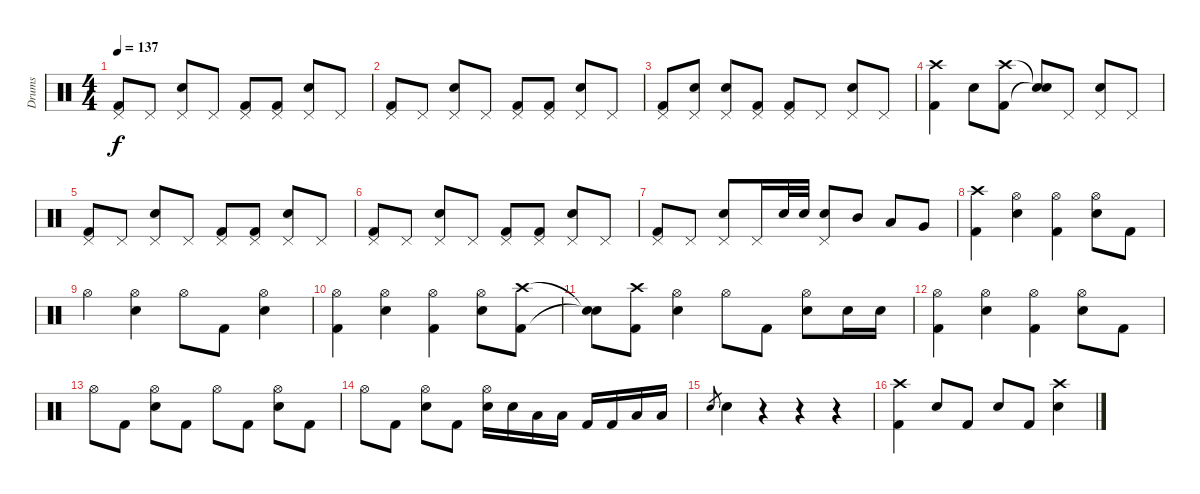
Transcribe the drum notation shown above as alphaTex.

\track ("Drums" "Drums") {instrument percussion}
\staff {score}
\articulation defaults
\ts (4 4)
\tempo 137
\clef neutral
\ks c
("Pedal Hi-Hat (hit)" "Kick (hit) 2").8{dy f} "Pedal Hi-Hat (hit)".8 ("Pedal Hi-Hat (hit)" "Electric Snare (hit)").8 "Pedal Hi-Hat (hit)".8 ("Pedal Hi-Hat (hit)" "Kick (hit) 2").8 ("Pedal Hi-Hat (hit)" "Kick (hit) 2").8 ("Pedal Hi-Hat (hit)" "Electric Snare (hit)").8 "Pedal Hi-Hat (hit)".8 |
("Pedal Hi-Hat (hit)" "Kick (hit) 2").8 "Pedal Hi-Hat (hit)".8 ("Pedal Hi-Hat (hit)" "Electric Snare (hit)").8 "Pedal Hi-Hat (hit)".8 ("Pedal Hi-Hat (hit)" "Kick (hit) 2").8 ("Pedal Hi-Hat (hit)" "Kick (hit) 2").8 ("Pedal Hi-Hat (hit)" "Electric Snare (hit)").8 "Pedal Hi-Hat (hit)".8 |
("Pedal Hi-Hat (hit)" "Kick (hit) 2").8 ("Pedal Hi-Hat (hit)" "Electric Snare (hit)").8 ("Pedal Hi-Hat (hit)" "Electric Snare (hit)").8 ("Pedal Hi-Hat (hit)" "Kick (hit) 2").8 ("Pedal Hi-Hat (hit)" "Kick (hit) 2").8 "Pedal Hi-Hat (hit)".8 ("Pedal Hi-Hat (hit)" "Electric Snare (hit)").8 "Pedal Hi-Hat (hit)".8 |
("Crash high (hit)" "Kick (hit) 2").4 "Electric Snare (hit)".8 ("Crash high (hit)" "Kick (hit) 2").8 ("Snare (hit)"{t} "Snare (hit)"{t}).8 "Pedal Hi-Hat (hit)".8 ("Pedal Hi-Hat (hit)" "Electric Snare (hit)").8 "Pedal Hi-Hat (hit)".8 |
("Pedal Hi-Hat (hit)" "Kick (hit) 2").8 "Pedal Hi-Hat (hit)".8 ("Pedal Hi-Hat (hit)" "Electric Snare (hit)").8 "Pedal Hi-Hat (hit)".8 ("Pedal Hi-Hat (hit)" "Kick (hit) 2").8 ("Pedal Hi-Hat (hit)" "Kick (hit) 2").8 ("Pedal Hi-Hat (hit)" "Electric Snare (hit)").8 "Pedal Hi-Hat (hit)".8 |
("Pedal Hi-Hat (hit)" "Kick (hit) 2").8 "Pedal Hi-Hat (hit)".8 ("Pedal Hi-Hat (hit)" "Electric Snare (hit)").8 "Pedal Hi-Hat (hit)".8 ("Pedal Hi-Hat (hit)" "Kick (hit) 2").8 ("Pedal Hi-Hat (hit)" "Kick (hit) 2").8 ("Pedal Hi-Hat (hit)" "Electric Snare (hit)").8 "Pedal Hi-Hat (hit)".8 |
("Pedal Hi-Hat (hit)" "Kick (hit) 2").8 "Pedal Hi-Hat (hit)".8 ("Pedal Hi-Hat (hit)" "Electric Snare (hit)").8 "Pedal Hi-Hat (hit)".16 "Electric Snare (hit)".32 "Electric Snare (hit)".32 ("Pedal Hi-Hat (hit)" "Electric Snare (hit)").8 "Mid Tom (hit)".8 "Low Tom (hit)".8 "Very Low Tom (hit)".8 |
("Crash high (hit)" "Kick (hit) 2").4 ("Hi-Hat (open)" "Electric Snare (hit)").4 ("Hi-Hat (open)" "Kick (hit) 2").4 ("Hi-Hat (open)" "Electric Snare (hit)").8 "Kick (hit) 2".8 |
"Hi-Hat (open)".4 ("Hi-Hat (open)" "Electric Snare (hit)").4 "Hi-Hat (open)".8 "Kick (hit) 2".8 ("Hi-Hat (open)" "Electric Snare (hit)").4 |
("Hi-Hat (open)" "Kick (hit) 2").4 ("Hi-Hat (open)" "Electric Snare (hit)").4 ("Hi-Hat (open)" "Kick (hit) 2").4 ("Hi-Hat (open)" "Electric Snare (hit)").8 ("Crash high (hit)" "Kick (hit) 2").8 |
("Snare (hit)"{t} "Snare (hit)"{t}).8 ("Crash high (hit)" "Kick (hit) 2").8 ("Hi-Hat (open)" "Electric Snare (hit)").4 "Hi-Hat (open)".8 "Kick (hit) 2".8 ("Hi-Hat (open)" "Electric Snare (hit)").8 "Electric Snare (hit)".16 "Electric Snare (hit)".16 |
("Hi-Hat (open)" "Kick (hit) 2").4 ("Hi-Hat (open)" "Electric Snare (hit)").4 ("Hi-Hat (open)" "Kick (hit) 2").4 ("Hi-Hat (open)" "Electric Snare (hit)").8 "Kick (hit) 2".8 |
"Hi-Hat (open)".8 "Kick (hit) 2".8 ("Hi-Hat (open)" "Electric Snare (hit)").8 "Kick (hit) 2".8 "Hi-Hat (open)".8 "Kick (hit) 2".8 ("Hi-Hat (open)" "Electric Snare (hit)").8 "Kick (hit) 2".8 |
"Hi-Hat (open)".8 "Kick (hit) 2".8 ("Hi-Hat (open)" "Electric Snare (hit)").8 "Kick (hit) 2".8 ("Hi-Hat (open)" "Electric Snare (hit)").16 "Electric Snare (hit)".16 "Low Tom (hit)".16 "Low Tom (hit)".16 "Kick (hit) 2".16 "Kick (hit) 2".16 "Low Tom (hit)".16 "Low Tom (hit)".16 |
"Electric Snare (hit)".8{gr} "Electric Snare (hit)".4 r.4 r.4 r.4 |
("Crash high (hit)" "Kick (hit) 2").4 "Electric Snare (hit)".8 "Kick (hit) 2".8 "Electric Snare (hit)".8 "Kick (hit) 2".8 ("Crash high (hit)" "Electric Snare (hit)").4
